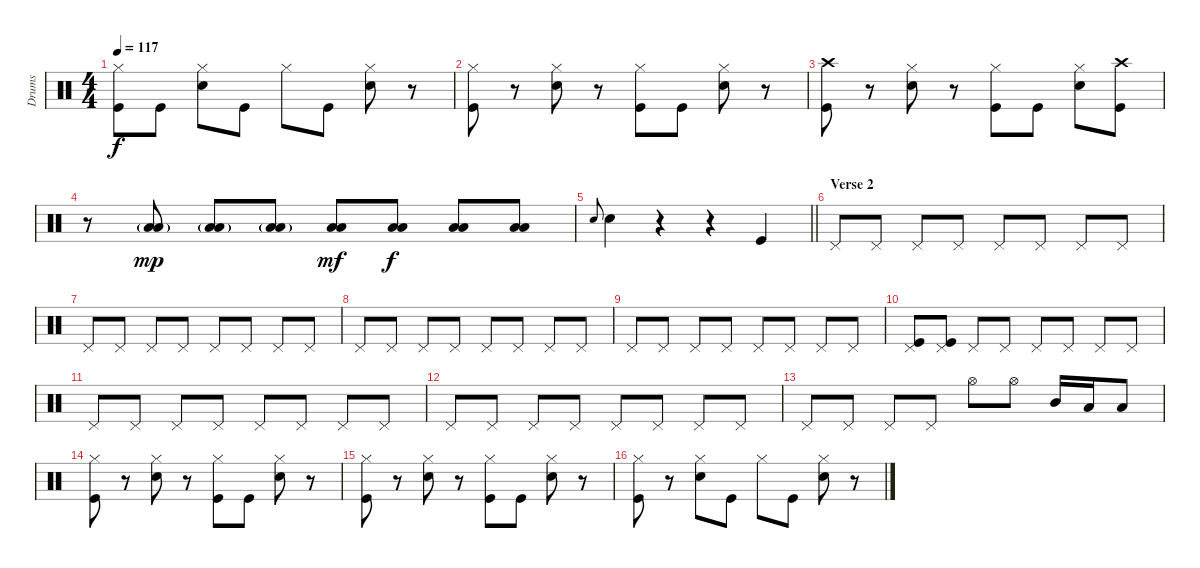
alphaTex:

\track ("Drums" "Drums") {instrument percussion}
\staff {score}
\articulation defaults
\ts (4 4)
\tempo 117
\clef neutral
\ks c
("Hi-Hat (closed)" "Kick (hit)").8{dy f} "Kick (hit)".8 ("Hi-Hat (closed)" "Snare (hit) 2").8 "Kick (hit)".8 "Hi-Hat (closed)".8 "Kick (hit)".8 ("Hi-Hat (closed)" "Snare (hit) 2").8 r.8 |
("Hi-Hat (closed)" "Kick (hit)").8 r.8 ("Hi-Hat (closed)" "Snare (hit) 2").8 r.8 ("Hi-Hat (closed)" "Kick (hit)").8 "Kick (hit)".8 ("Hi-Hat (closed)" "Snare (hit) 2").8 r.8 |
("Crash high (hit)" "Kick (hit)").8 r.8 ("Hi-Hat (closed)" "Snare (hit) 2").8 r.8 ("Hi-Hat (closed)" "Kick (hit)").8 "Kick (hit)".8 ("Hi-Hat (closed)" "Snare (hit) 2").8 ("Crash high (hit)" "Kick (hit)").8 |
r.8 ("Low Floor Tom (hit)"{g} "Low Tom (hit)"{g}).8{dy mp} ("Low Floor Tom (hit)"{g} "Low Tom (hit)"{g}).8 ("Low Floor Tom (hit)"{g} "Low Tom (hit)"{g}).8 ("Low Floor Tom (hit)" "Low Tom (hit)").8{dy mf} ("Low Floor Tom (hit)" "Low Tom (hit)").8{dy f} ("Low Floor Tom (hit)" "Low Tom (hit)").8 ("Low Floor Tom (hit)" "Low Tom (hit)").8 |
\barLineRight lightlight "Snare (hit) 2".8{gr onbeat} "Snare (hit) 2".4
r.4 r.4 "Kick (hit)".4 |
\section ("" "Verse 2")
"Pedal Hi-Hat (hit)".8 "Pedal Hi-Hat (hit)".8 "Pedal Hi-Hat (hit)".8 "Pedal Hi-Hat (hit)".8 "Pedal Hi-Hat (hit)".8 "Pedal Hi-Hat (hit)".8 "Pedal Hi-Hat (hit)".8 "Pedal Hi-Hat (hit)".8 |
"Pedal Hi-Hat (hit)".8 "Pedal Hi-Hat (hit)".8 "Pedal Hi-Hat (hit)".8 "Pedal Hi-Hat (hit)".8 "Pedal Hi-Hat (hit)".8 "Pedal Hi-Hat (hit)".8 "Pedal Hi-Hat (hit)".8 "Pedal Hi-Hat (hit)".8 |
"Pedal Hi-Hat (hit)".8 "Pedal Hi-Hat (hit)".8 "Pedal Hi-Hat (hit)".8 "Pedal Hi-Hat (hit)".8 "Pedal Hi-Hat (hit)".8 "Pedal Hi-Hat (hit)".8 "Pedal Hi-Hat (hit)".8 "Pedal Hi-Hat (hit)".8 |
"Pedal Hi-Hat (hit)".8 "Pedal Hi-Hat (hit)".8 "Pedal Hi-Hat (hit)".8 "Pedal Hi-Hat (hit)".8 "Pedal Hi-Hat (hit)".8 "Pedal Hi-Hat (hit)".8 "Pedal Hi-Hat (hit)".8 "Pedal Hi-Hat (hit)".8 |
("Pedal Hi-Hat (hit)" "Kick (hit)").8 ("Pedal Hi-Hat (hit)" "Kick (hit)").8 "Pedal Hi-Hat (hit)".8 "Pedal Hi-Hat (hit)".8 "Pedal Hi-Hat (hit)".8 "Pedal Hi-Hat (hit)".8 "Pedal Hi-Hat (hit)".8 "Pedal Hi-Hat (hit)".8 |
"Pedal Hi-Hat (hit)".8 "Pedal Hi-Hat (hit)".8 "Pedal Hi-Hat (hit)".8 "Pedal Hi-Hat (hit)".8 "Pedal Hi-Hat (hit)".8 "Pedal Hi-Hat (hit)".8 "Pedal Hi-Hat (hit)".8 "Pedal Hi-Hat (hit)".8 |
"Pedal Hi-Hat (hit)".8 "Pedal Hi-Hat (hit)".8 "Pedal Hi-Hat (hit)".8 "Pedal Hi-Hat (hit)".8 "Pedal Hi-Hat (hit)".8 "Pedal Hi-Hat (hit)".8 "Pedal Hi-Hat (hit)".8 "Pedal Hi-Hat (hit)".8 |
"Pedal Hi-Hat (hit)".8 "Pedal Hi-Hat (hit)".8 "Pedal Hi-Hat (hit)".8 "Pedal Hi-Hat (hit)".8 "Hi-Hat (open)".8 "Hi-Hat (open)".8 "Mid Tom (hit)".16 "Low Tom (hit)".16 "Low Floor Tom (hit)".8 |
("Hi-Hat (closed)" "Kick (hit)").8 r.8 ("Hi-Hat (closed)" "Snare (hit) 2").8 r.8 ("Hi-Hat (closed)" "Kick (hit)").8 "Kick (hit)".8 ("Hi-Hat (closed)" "Snare (hit) 2").8 r.8 |
("Hi-Hat (closed)" "Kick (hit)").8 r.8 ("Hi-Hat (closed)" "Snare (hit) 2").8 r.8 ("Hi-Hat (closed)" "Kick (hit)").8 "Kick (hit)".8 ("Hi-Hat (closed)" "Snare (hit) 2").8 r.8 |
("Hi-Hat (closed)" "Kick (hit)").8 r.8 ("Hi-Hat (closed)" "Snare (hit) 2").8 "Kick (hit)".8 "Hi-Hat (closed)".8 "Kick (hit)".8 ("Hi-Hat (closed)" "Snare (hit) 2").8 r.8
